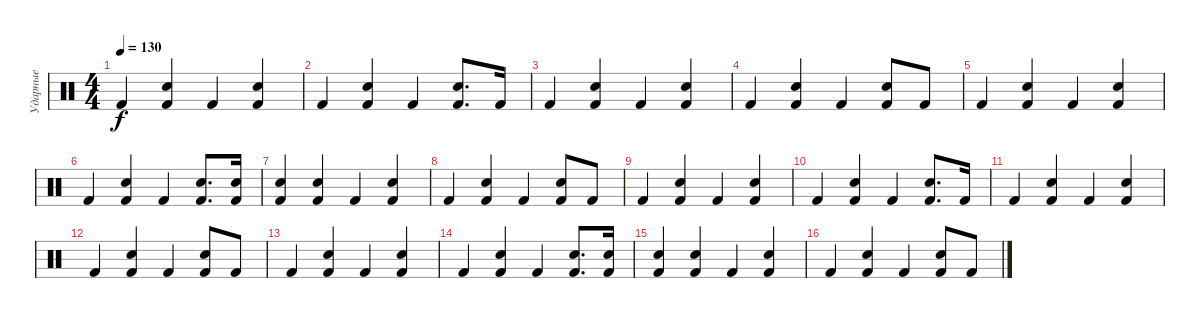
\track ("Ударные" "Ударные") {instrument percussion}
\staff {score}
\articulation defaults
\ts (4 4)
\tempo 130
\clef neutral
\ks c "Kick (hit) 2".4{dy f}
("Hand Clap (hit)" "Kick (hit) 2").4 "Kick (hit) 2".4 ("Hand Clap (hit)" "Kick (hit) 2").4 |
"Kick (hit) 2".4 ("Hand Clap (hit)" "Kick (hit) 2").4 "Kick (hit) 2".4 ("Hand Clap (hit)" "Kick (hit) 2").8{d} "Kick (hit) 2".16 |
"Kick (hit) 2".4 ("Hand Clap (hit)" "Kick (hit) 2").4 "Kick (hit) 2".4 ("Hand Clap (hit)" "Kick (hit) 2").4 |
"Kick (hit) 2".4 ("Hand Clap (hit)" "Kick (hit) 2").4 "Kick (hit) 2".4 ("Hand Clap (hit)" "Kick (hit) 2").8 "Kick (hit) 2".8 |
"Kick (hit) 2".4 ("Hand Clap (hit)" "Kick (hit) 2").4 "Kick (hit) 2".4 ("Hand Clap (hit)" "Kick (hit) 2").4 |
"Kick (hit) 2".4 ("Hand Clap (hit)" "Kick (hit) 2").4 "Kick (hit) 2".4 ("Hand Clap (hit)" "Kick (hit) 2").8{d} ("Hand Clap (hit)" "Kick (hit) 2").16 |
("Hand Clap (hit)" "Kick (hit) 2").4 ("Hand Clap (hit)" "Kick (hit) 2").4 "Kick (hit) 2".4 ("Hand Clap (hit)" "Kick (hit) 2").4 |
"Kick (hit) 2".4 ("Hand Clap (hit)" "Kick (hit) 2").4 "Kick (hit) 2".4 ("Hand Clap (hit)" "Kick (hit) 2").8 "Kick (hit) 2".8 |
"Kick (hit) 2".4 ("Hand Clap (hit)" "Kick (hit) 2").4 "Kick (hit) 2".4 ("Hand Clap (hit)" "Kick (hit) 2").4 |
"Kick (hit) 2".4 ("Hand Clap (hit)" "Kick (hit) 2").4 "Kick (hit) 2".4 ("Hand Clap (hit)" "Kick (hit) 2").8{d} "Kick (hit) 2".16 |
"Kick (hit) 2".4 ("Hand Clap (hit)" "Kick (hit) 2").4 "Kick (hit) 2".4 ("Hand Clap (hit)" "Kick (hit) 2").4 |
"Kick (hit) 2".4 ("Hand Clap (hit)" "Kick (hit) 2").4 "Kick (hit) 2".4 ("Hand Clap (hit)" "Kick (hit) 2").8 "Kick (hit) 2".8 |
"Kick (hit) 2".4 ("Hand Clap (hit)" "Kick (hit) 2").4 "Kick (hit) 2".4 ("Hand Clap (hit)" "Kick (hit) 2").4 |
"Kick (hit) 2".4 ("Hand Clap (hit)" "Kick (hit) 2").4 "Kick (hit) 2".4 ("Hand Clap (hit)" "Kick (hit) 2").8{d} ("Hand Clap (hit)" "Kick (hit) 2").16 |
("Hand Clap (hit)" "Kick (hit) 2").4 ("Hand Clap (hit)" "Kick (hit) 2").4 "Kick (hit) 2".4 ("Hand Clap (hit)" "Kick (hit) 2").4 |
"Kick (hit) 2".4 ("Hand Clap (hit)" "Kick (hit) 2").4 "Kick (hit) 2".4 ("Hand Clap (hit)" "Kick (hit) 2").8 "Kick (hit) 2".8
